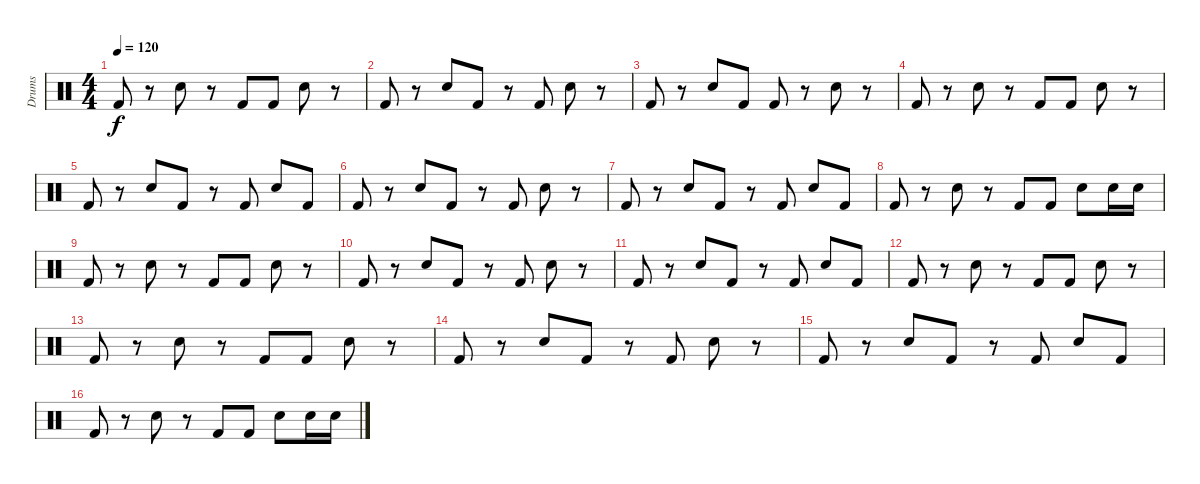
\track ("Drums" "Drums") {instrument percussion}
\staff {score}
\articulation defaults
\ts (4 4)
\tempo 120
\clef neutral
\ks c "Kick (hit) 2".8{dy f}
r.8 "Snare (hit) 2".8 r.8 "Kick (hit) 2".8 "Kick (hit) 2".8 "Snare (hit) 2".8 r.8 |
"Kick (hit) 2".8 r.8 "Snare (hit) 2".8 "Kick (hit) 2".8 r.8 "Kick (hit) 2".8 "Snare (hit) 2".8 r.8 |
"Kick (hit) 2".8 r.8 "Snare (hit) 2".8 "Kick (hit) 2".8 "Kick (hit) 2".8 r.8 "Snare (hit) 2".8 r.8 |
"Kick (hit) 2".8 r.8 "Snare (hit) 2".8 r.8 "Kick (hit) 2".8 "Kick (hit) 2".8 "Snare (hit) 2".8 r.8 |
"Kick (hit) 2".8 r.8 "Snare (hit) 2".8 "Kick (hit) 2".8 r.8 "Kick (hit) 2".8 "Snare (hit) 2".8 "Kick (hit) 2".8 |
"Kick (hit) 2".8 r.8 "Snare (hit) 2".8 "Kick (hit) 2".8 r.8 "Kick (hit) 2".8 "Snare (hit) 2".8 r.8 |
"Kick (hit) 2".8 r.8 "Snare (hit) 2".8 "Kick (hit) 2".8 r.8 "Kick (hit) 2".8 "Snare (hit) 2".8 "Kick (hit) 2".8 |
"Kick (hit) 2".8 r.8 "Snare (hit) 2".8 r.8 "Kick (hit) 2".8 "Kick (hit) 2".8 "Snare (hit) 2".8 "Snare (hit) 2".16 "Snare (hit) 2".16 |
"Kick (hit) 2".8 r.8 "Snare (hit) 2".8 r.8 "Kick (hit) 2".8 "Kick (hit) 2".8 "Snare (hit) 2".8 r.8 |
"Kick (hit) 2".8 r.8 "Snare (hit) 2".8 "Kick (hit) 2".8 r.8 "Kick (hit) 2".8 "Snare (hit) 2".8 r.8 |
"Kick (hit) 2".8 r.8 "Snare (hit) 2".8 "Kick (hit) 2".8 r.8 "Kick (hit) 2".8 "Snare (hit) 2".8 "Kick (hit) 2".8 |
"Kick (hit) 2".8 r.8 "Snare (hit) 2".8 r.8 "Kick (hit) 2".8 "Kick (hit) 2".8 "Snare (hit) 2".8 r.8 |
"Kick (hit) 2".8 r.8 "Snare (hit) 2".8 r.8 "Kick (hit) 2".8 "Kick (hit) 2".8 "Snare (hit) 2".8 r.8 |
"Kick (hit) 2".8 r.8 "Snare (hit) 2".8 "Kick (hit) 2".8 r.8 "Kick (hit) 2".8 "Snare (hit) 2".8 r.8 |
"Kick (hit) 2".8 r.8 "Snare (hit) 2".8 "Kick (hit) 2".8 r.8 "Kick (hit) 2".8 "Snare (hit) 2".8 "Kick (hit) 2".8 |
"Kick (hit) 2".8 r.8 "Snare (hit) 2".8 r.8 "Kick (hit) 2".8 "Kick (hit) 2".8 "Snare (hit) 2".8 "Snare (hit) 2".16 "Snare (hit) 2".16
